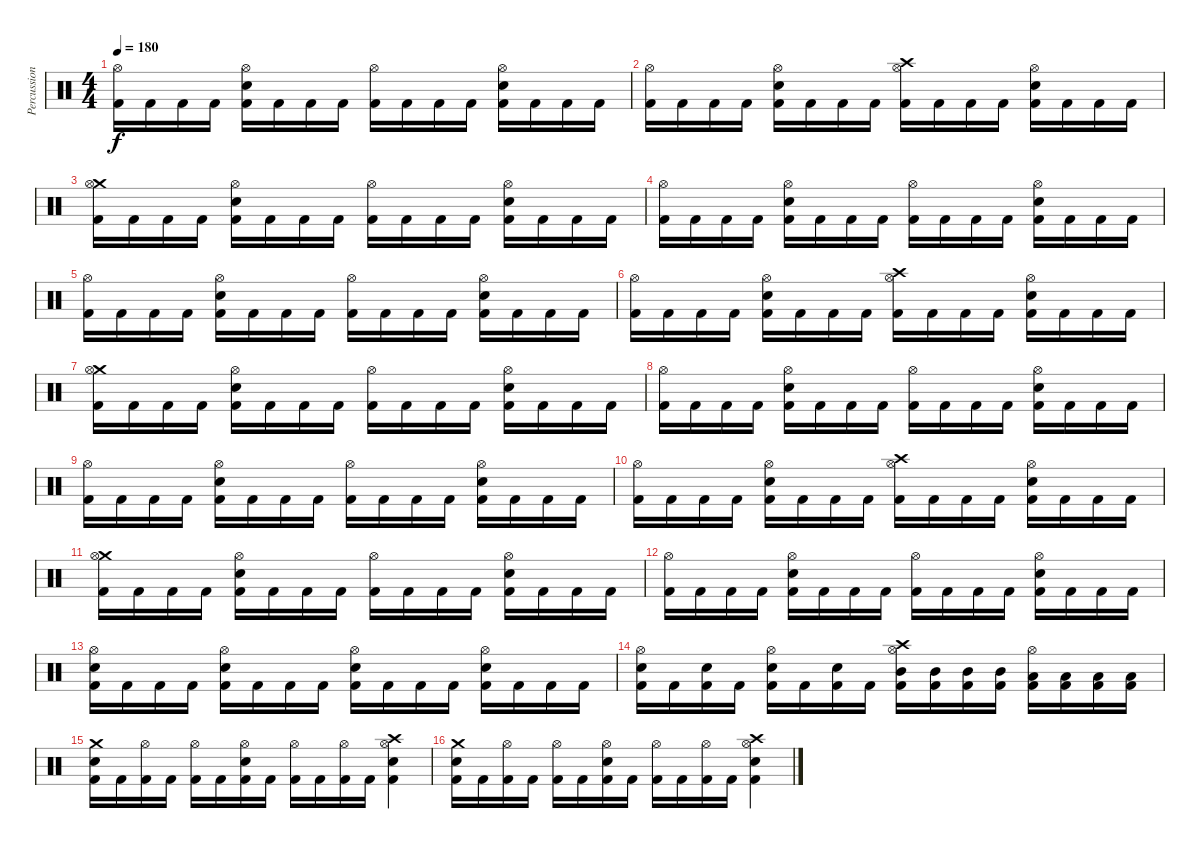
\track ("Percussion" "Percussion") {instrument percussion}
\staff {score}
\articulation defaults
\ts (4 4)
\tempo 180
\clef neutral
\ks c
("Hi-Hat (open)" "Kick (hit) 2").16{dy f} "Kick (hit) 2".16 "Kick (hit) 2".16 "Kick (hit) 2".16 ("Hi-Hat (open)" "Electric Snare (hit)" "Kick (hit) 2").16 "Kick (hit) 2".16 "Kick (hit) 2".16 "Kick (hit) 2".16 ("Hi-Hat (open)" "Kick (hit) 2").16 "Kick (hit) 2".16 "Kick (hit) 2".16 "Kick (hit) 2".16 ("Hi-Hat (open)" "Electric Snare (hit)" "Kick (hit) 2").16 "Kick (hit) 2".16 "Kick (hit) 2".16 "Kick (hit) 2".16 |
("Hi-Hat (open)" "Kick (hit) 2").16 "Kick (hit) 2".16 "Kick (hit) 2".16 "Kick (hit) 2".16 ("Hi-Hat (open)" "Electric Snare (hit)" "Kick (hit) 2").16 "Kick (hit) 2".16 "Kick (hit) 2".16 "Kick (hit) 2".16 ("Crash high (hit)" "Hi-Hat (open)" "Kick (hit) 2").16 "Kick (hit) 2".16 "Kick (hit) 2".16 "Kick (hit) 2".16 ("Hi-Hat (open)" "Electric Snare (hit)" "Kick (hit) 2").16 "Kick (hit) 2".16 "Kick (hit) 2".16 "Kick (hit) 2".16 |
("Crash medium (hit)" "Hi-Hat (open)" "Kick (hit) 2").16 "Kick (hit) 2".16 "Kick (hit) 2".16 "Kick (hit) 2".16 ("Hi-Hat (open)" "Electric Snare (hit)" "Kick (hit) 2").16 "Kick (hit) 2".16 "Kick (hit) 2".16 "Kick (hit) 2".16 ("Hi-Hat (open)" "Kick (hit) 2").16 "Kick (hit) 2".16 "Kick (hit) 2".16 "Kick (hit) 2".16 ("Hi-Hat (open)" "Electric Snare (hit)" "Kick (hit) 2").16 "Kick (hit) 2".16 "Kick (hit) 2".16 "Kick (hit) 2".16 |
("Hi-Hat (open)" "Kick (hit) 2").16 "Kick (hit) 2".16 "Kick (hit) 2".16 "Kick (hit) 2".16 ("Hi-Hat (open)" "Electric Snare (hit)" "Kick (hit) 2").16 "Kick (hit) 2".16 "Kick (hit) 2".16 "Kick (hit) 2".16 ("Hi-Hat (open)" "Kick (hit) 2").16 "Kick (hit) 2".16 "Kick (hit) 2".16 "Kick (hit) 2".16 ("Hi-Hat (open)" "Electric Snare (hit)" "Kick (hit) 2").16 "Kick (hit) 2".16 "Kick (hit) 2".16 "Kick (hit) 2".16 |
("Hi-Hat (open)" "Kick (hit) 2").16 "Kick (hit) 2".16 "Kick (hit) 2".16 "Kick (hit) 2".16 ("Hi-Hat (open)" "Electric Snare (hit)" "Kick (hit) 2").16 "Kick (hit) 2".16 "Kick (hit) 2".16 "Kick (hit) 2".16 ("Hi-Hat (open)" "Kick (hit) 2").16 "Kick (hit) 2".16 "Kick (hit) 2".16 "Kick (hit) 2".16 ("Hi-Hat (open)" "Electric Snare (hit)" "Kick (hit) 2").16 "Kick (hit) 2".16 "Kick (hit) 2".16 "Kick (hit) 2".16 |
("Hi-Hat (open)" "Kick (hit) 2").16 "Kick (hit) 2".16 "Kick (hit) 2".16 "Kick (hit) 2".16 ("Hi-Hat (open)" "Electric Snare (hit)" "Kick (hit) 2").16 "Kick (hit) 2".16 "Kick (hit) 2".16 "Kick (hit) 2".16 ("Crash high (hit)" "Hi-Hat (open)" "Kick (hit) 2").16 "Kick (hit) 2".16 "Kick (hit) 2".16 "Kick (hit) 2".16 ("Hi-Hat (open)" "Electric Snare (hit)" "Kick (hit) 2").16 "Kick (hit) 2".16 "Kick (hit) 2".16 "Kick (hit) 2".16 |
("Crash medium (hit)" "Hi-Hat (open)" "Kick (hit) 2").16 "Kick (hit) 2".16 "Kick (hit) 2".16 "Kick (hit) 2".16 ("Hi-Hat (open)" "Electric Snare (hit)" "Kick (hit) 2").16 "Kick (hit) 2".16 "Kick (hit) 2".16 "Kick (hit) 2".16 ("Hi-Hat (open)" "Kick (hit) 2").16 "Kick (hit) 2".16 "Kick (hit) 2".16 "Kick (hit) 2".16 ("Hi-Hat (open)" "Electric Snare (hit)" "Kick (hit) 2").16 "Kick (hit) 2".16 "Kick (hit) 2".16 "Kick (hit) 2".16 |
("Hi-Hat (open)" "Kick (hit) 2").16 "Kick (hit) 2".16 "Kick (hit) 2".16 "Kick (hit) 2".16 ("Hi-Hat (open)" "Electric Snare (hit)" "Kick (hit) 2").16 "Kick (hit) 2".16 "Kick (hit) 2".16 "Kick (hit) 2".16 ("Hi-Hat (open)" "Kick (hit) 2").16 "Kick (hit) 2".16 "Kick (hit) 2".16 "Kick (hit) 2".16 ("Hi-Hat (open)" "Electric Snare (hit)" "Kick (hit) 2").16 "Kick (hit) 2".16 "Kick (hit) 2".16 "Kick (hit) 2".16 |
("Hi-Hat (open)" "Kick (hit) 2").16 "Kick (hit) 2".16 "Kick (hit) 2".16 "Kick (hit) 2".16 ("Hi-Hat (open)" "Electric Snare (hit)" "Kick (hit) 2").16 "Kick (hit) 2".16 "Kick (hit) 2".16 "Kick (hit) 2".16 ("Hi-Hat (open)" "Kick (hit) 2").16 "Kick (hit) 2".16 "Kick (hit) 2".16 "Kick (hit) 2".16 ("Hi-Hat (open)" "Electric Snare (hit)" "Kick (hit) 2").16 "Kick (hit) 2".16 "Kick (hit) 2".16 "Kick (hit) 2".16 |
("Hi-Hat (open)" "Kick (hit) 2").16 "Kick (hit) 2".16 "Kick (hit) 2".16 "Kick (hit) 2".16 ("Hi-Hat (open)" "Electric Snare (hit)" "Kick (hit) 2").16 "Kick (hit) 2".16 "Kick (hit) 2".16 "Kick (hit) 2".16 ("Crash high (hit)" "Hi-Hat (open)" "Kick (hit) 2").16 "Kick (hit) 2".16 "Kick (hit) 2".16 "Kick (hit) 2".16 ("Hi-Hat (open)" "Electric Snare (hit)" "Kick (hit) 2").16 "Kick (hit) 2".16 "Kick (hit) 2".16 "Kick (hit) 2".16 |
("Crash medium (hit)" "Hi-Hat (open)" "Kick (hit) 2").16 "Kick (hit) 2".16 "Kick (hit) 2".16 "Kick (hit) 2".16 ("Hi-Hat (open)" "Electric Snare (hit)" "Kick (hit) 2").16 "Kick (hit) 2".16 "Kick (hit) 2".16 "Kick (hit) 2".16 ("Hi-Hat (open)" "Kick (hit) 2").16 "Kick (hit) 2".16 "Kick (hit) 2".16 "Kick (hit) 2".16 ("Hi-Hat (open)" "Electric Snare (hit)" "Kick (hit) 2").16 "Kick (hit) 2".16 "Kick (hit) 2".16 "Kick (hit) 2".16 |
("Hi-Hat (open)" "Kick (hit) 2").16 "Kick (hit) 2".16 "Kick (hit) 2".16 "Kick (hit) 2".16 ("Hi-Hat (open)" "Electric Snare (hit)" "Kick (hit) 2").16 "Kick (hit) 2".16 "Kick (hit) 2".16 "Kick (hit) 2".16 ("Hi-Hat (open)" "Kick (hit) 2").16 "Kick (hit) 2".16 "Kick (hit) 2".16 "Kick (hit) 2".16 ("Hi-Hat (open)" "Electric Snare (hit)" "Kick (hit) 2").16 "Kick (hit) 2".16 "Kick (hit) 2".16 "Kick (hit) 2".16 |
("Hi-Hat (open)" "Electric Snare (hit)" "Kick (hit) 2").16 "Kick (hit) 2".16 "Kick (hit) 2".16 "Kick (hit) 2".16 ("Hi-Hat (open)" "Electric Snare (hit)" "Kick (hit) 2").16 "Kick (hit) 2".16 "Kick (hit) 2".16 "Kick (hit) 2".16 ("Hi-Hat (open)" "Electric Snare (hit)" "Kick (hit) 2").16 "Kick (hit) 2".16 "Kick (hit) 2".16 "Kick (hit) 2".16 ("Hi-Hat (open)" "Electric Snare (hit)" "Kick (hit) 2").16 "Kick (hit) 2".16 "Kick (hit) 2".16 "Kick (hit) 2".16 |
("Hi-Hat (open)" "Electric Snare (hit)" "Kick (hit) 2").16 "Kick (hit) 2".16 ("Electric Snare (hit)" "Kick (hit) 2").16 "Kick (hit) 2".16 ("Hi-Hat (open)" "Electric Snare (hit)" "Kick (hit) 2").16 "Kick (hit) 2".16 ("Electric Snare (hit)" "Kick (hit) 2").16 "Kick (hit) 2".16 ("Crash high (hit)" "Hi-Hat (open)" "Mid Tom (hit)" "Kick (hit) 2").16 ("Mid Tom (hit)" "Kick (hit) 2").16 ("Mid Tom (hit)" "Kick (hit) 2").16 ("Mid Tom (hit)" "Kick (hit) 2").16 ("Hi-Hat (open)" "Low Tom (hit)" "Kick (hit) 2").16 ("Low Tom (hit)" "Kick (hit) 2").16 ("Low Tom (hit)" "Kick (hit) 2").16 ("Low Tom (hit)" "Kick (hit) 2").16 |
("Crash medium (hit)" "Electric Snare (hit)" "Kick (hit) 2").16 "Kick (hit) 2".16 ("Hi-Hat (open)" "Kick (hit) 2").16 "Kick (hit) 2".16 ("Hi-Hat (open)" "Kick (hit) 2").16 "Kick (hit) 2".16 ("Hi-Hat (open)" "Electric Snare (hit)" "Kick (hit) 2").16 "Kick (hit) 2".16 ("Hi-Hat (open)" "Kick (hit) 2").16 "Kick (hit) 2".16 ("Hi-Hat (open)" "Kick (hit) 2").16 "Kick (hit) 2".16 ("Crash high (hit)" "Hi-Hat (open)" "Electric Snare (hit)" "Kick (hit) 2").4 |
("Crash medium (hit)" "Electric Snare (hit)" "Kick (hit) 2").16 "Kick (hit) 2".16 ("Hi-Hat (open)" "Kick (hit) 2").16 "Kick (hit) 2".16 ("Hi-Hat (open)" "Kick (hit) 2").16 "Kick (hit) 2".16 ("Hi-Hat (open)" "Electric Snare (hit)" "Kick (hit) 2").16 "Kick (hit) 2".16 ("Hi-Hat (open)" "Kick (hit) 2").16 "Kick (hit) 2".16 ("Hi-Hat (open)" "Kick (hit) 2").16 "Kick (hit) 2".16 ("Crash high (hit)" "Hi-Hat (open)" "Electric Snare (hit)" "Kick (hit) 2").4
